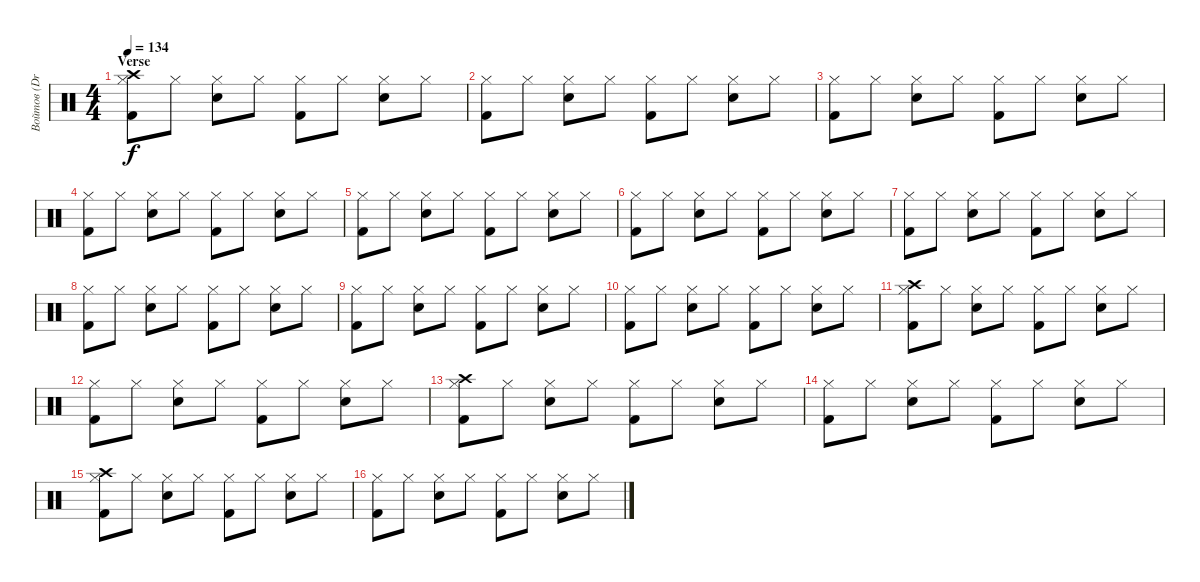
\track ("Войтов (Drums)" "Войтов (Dr") {instrument percussion}
\staff {score}
\articulation defaults
\ts (4 4)
\section ("" "Verse")
\tempo 134
\clef neutral
\ks c
("Hi-Hat (closed)" "Kick (hit) 2" "Crash high (hit)").8{dy f} "Hi-Hat (closed)".8 ("Hi-Hat (closed)" "Electric Snare (hit)").8 "Hi-Hat (closed)".8 ("Hi-Hat (closed)" "Kick (hit) 2").8 "Hi-Hat (closed)".8 ("Hi-Hat (closed)" "Electric Snare (hit)").8 "Hi-Hat (closed)".8 |
("Hi-Hat (closed)" "Kick (hit) 2").8 "Hi-Hat (closed)".8 ("Hi-Hat (closed)" "Electric Snare (hit)").8 "Hi-Hat (closed)".8 ("Hi-Hat (closed)" "Kick (hit) 2").8 "Hi-Hat (closed)".8 ("Hi-Hat (closed)" "Electric Snare (hit)").8 "Hi-Hat (closed)".8 |
("Hi-Hat (closed)" "Kick (hit) 2").8 "Hi-Hat (closed)".8 ("Hi-Hat (closed)" "Electric Snare (hit)").8 "Hi-Hat (closed)".8 ("Hi-Hat (closed)" "Kick (hit) 2").8 "Hi-Hat (closed)".8 ("Hi-Hat (closed)" "Electric Snare (hit)").8 "Hi-Hat (closed)".8 |
("Hi-Hat (closed)" "Kick (hit) 2").8 "Hi-Hat (closed)".8 ("Hi-Hat (closed)" "Electric Snare (hit)").8 "Hi-Hat (closed)".8 ("Hi-Hat (closed)" "Kick (hit) 2").8 "Hi-Hat (closed)".8 ("Hi-Hat (closed)" "Electric Snare (hit)").8 "Hi-Hat (closed)".8 |
("Hi-Hat (closed)" "Kick (hit) 2").8 "Hi-Hat (closed)".8 ("Hi-Hat (closed)" "Electric Snare (hit)").8 "Hi-Hat (closed)".8 ("Hi-Hat (closed)" "Kick (hit) 2").8 "Hi-Hat (closed)".8 ("Hi-Hat (closed)" "Electric Snare (hit)").8 "Hi-Hat (closed)".8 |
("Hi-Hat (closed)" "Kick (hit) 2").8 "Hi-Hat (closed)".8 ("Hi-Hat (closed)" "Electric Snare (hit)").8 "Hi-Hat (closed)".8 ("Hi-Hat (closed)" "Kick (hit) 2").8 "Hi-Hat (closed)".8 ("Hi-Hat (closed)" "Electric Snare (hit)").8 "Hi-Hat (closed)".8 |
("Hi-Hat (closed)" "Kick (hit) 2").8 "Hi-Hat (closed)".8 ("Hi-Hat (closed)" "Electric Snare (hit)").8 "Hi-Hat (closed)".8 ("Hi-Hat (closed)" "Kick (hit) 2").8 "Hi-Hat (closed)".8 ("Hi-Hat (closed)" "Electric Snare (hit)").8 "Hi-Hat (closed)".8 |
("Hi-Hat (closed)" "Kick (hit) 2").8 "Hi-Hat (closed)".8 ("Hi-Hat (closed)" "Electric Snare (hit)").8 "Hi-Hat (closed)".8 ("Hi-Hat (closed)" "Kick (hit) 2").8 "Hi-Hat (closed)".8 ("Hi-Hat (closed)" "Electric Snare (hit)").8 "Hi-Hat (closed)".8 |
("Hi-Hat (closed)" "Kick (hit) 2").8 "Hi-Hat (closed)".8 ("Hi-Hat (closed)" "Electric Snare (hit)").8 "Hi-Hat (closed)".8 ("Hi-Hat (closed)" "Kick (hit) 2").8 "Hi-Hat (closed)".8 ("Hi-Hat (closed)" "Electric Snare (hit)").8 "Hi-Hat (closed)".8 |
("Hi-Hat (closed)" "Kick (hit) 2").8 "Hi-Hat (closed)".8 ("Hi-Hat (closed)" "Electric Snare (hit)").8 "Hi-Hat (closed)".8 ("Hi-Hat (closed)" "Kick (hit) 2").8 "Hi-Hat (closed)".8 ("Hi-Hat (closed)" "Electric Snare (hit)").8 "Hi-Hat (closed)".8 |
("Hi-Hat (closed)" "Kick (hit) 2" "Crash high (hit)").8 "Hi-Hat (closed)".8 ("Hi-Hat (closed)" "Electric Snare (hit)").8 "Hi-Hat (closed)".8 ("Hi-Hat (closed)" "Kick (hit) 2").8 "Hi-Hat (closed)".8 ("Hi-Hat (closed)" "Electric Snare (hit)").8 "Hi-Hat (closed)".8 |
("Hi-Hat (closed)" "Kick (hit) 2").8 "Hi-Hat (closed)".8 ("Hi-Hat (closed)" "Electric Snare (hit)").8 "Hi-Hat (closed)".8 ("Hi-Hat (closed)" "Kick (hit) 2").8 "Hi-Hat (closed)".8 ("Hi-Hat (closed)" "Electric Snare (hit)").8 "Hi-Hat (closed)".8 |
("Hi-Hat (closed)" "Kick (hit) 2" "Crash high (hit)").8 "Hi-Hat (closed)".8 ("Hi-Hat (closed)" "Electric Snare (hit)").8 "Hi-Hat (closed)".8 ("Hi-Hat (closed)" "Kick (hit) 2").8 "Hi-Hat (closed)".8 ("Hi-Hat (closed)" "Electric Snare (hit)").8 "Hi-Hat (closed)".8 |
("Hi-Hat (closed)" "Kick (hit) 2").8 "Hi-Hat (closed)".8 ("Hi-Hat (closed)" "Electric Snare (hit)").8 "Hi-Hat (closed)".8 ("Hi-Hat (closed)" "Kick (hit) 2").8 "Hi-Hat (closed)".8 ("Hi-Hat (closed)" "Electric Snare (hit)").8 "Hi-Hat (closed)".8 |
("Hi-Hat (closed)" "Kick (hit) 2" "Crash high (hit)").8 "Hi-Hat (closed)".8 ("Hi-Hat (closed)" "Electric Snare (hit)").8 "Hi-Hat (closed)".8 ("Hi-Hat (closed)" "Kick (hit) 2").8 "Hi-Hat (closed)".8 ("Hi-Hat (closed)" "Electric Snare (hit)").8 "Hi-Hat (closed)".8 |
("Hi-Hat (closed)" "Kick (hit) 2").8 "Hi-Hat (closed)".8 ("Hi-Hat (closed)" "Electric Snare (hit)").8 "Hi-Hat (closed)".8 ("Hi-Hat (closed)" "Kick (hit) 2").8 "Hi-Hat (closed)".8 ("Hi-Hat (closed)" "Electric Snare (hit)").8 "Hi-Hat (closed)".8
